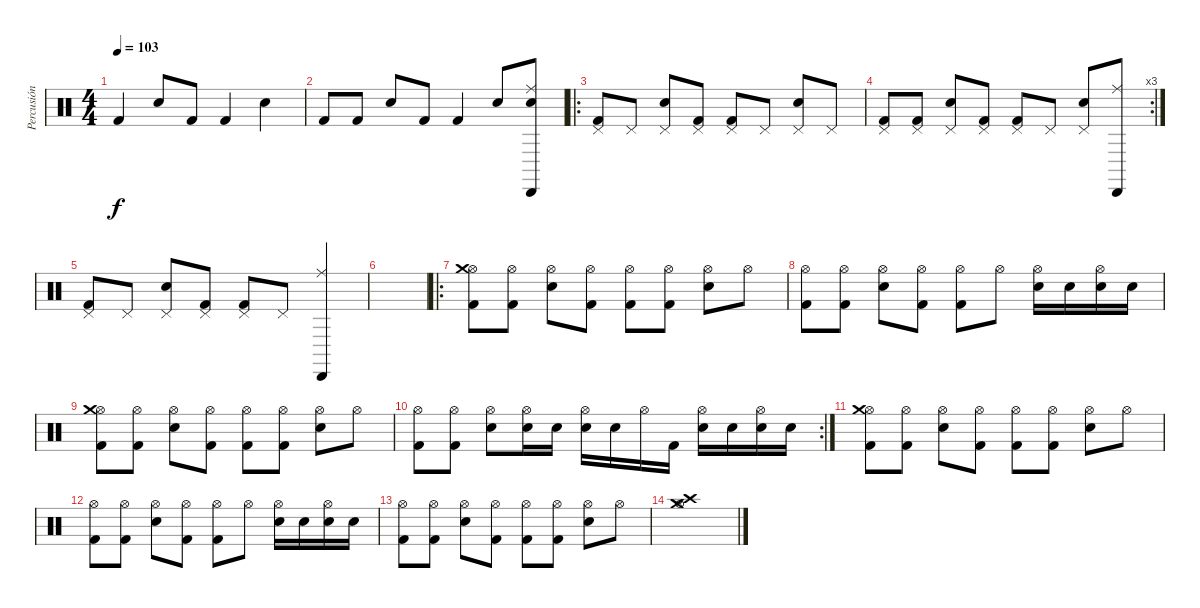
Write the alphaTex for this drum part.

\track ("Percusión" "Percusión") {instrument percussion}
\staff {score}
\articulation defaults
\ts (4 4)
\tempo 103
\clef neutral
\ks c "Kick (hit) 2".4{dy f} "Electric Snare (hit)".8 "Kick (hit) 2".8 "Kick (hit) 2".4 "Electric Snare (hit)".4
|
"Kick (hit) 2".8 "Kick (hit) 2".8 "Electric Snare (hit)".8 "Kick (hit) 2".8 "Kick (hit) 2".4 "Electric Snare (hit)".8 ("Cabasa (hit)" "Snare (hit)" "Ride (middle)").8 |
\ro
("Pedal Hi-Hat (hit)" "Kick (hit) 2").8 "Pedal Hi-Hat (hit)".8 ("Pedal Hi-Hat (hit)" "Electric Snare (hit)").8 ("Pedal Hi-Hat (hit)" "Kick (hit) 2").8 ("Pedal Hi-Hat (hit)" "Kick (hit) 2").8 "Pedal Hi-Hat (hit)".8 ("Pedal Hi-Hat (hit)" "Electric Snare (hit)").8 "Pedal Hi-Hat (hit)".8 |
\rc 3
("Pedal Hi-Hat (hit)" "Kick (hit) 2").8 ("Pedal Hi-Hat (hit)" "Kick (hit) 2").8 ("Pedal Hi-Hat (hit)" "Electric Snare (hit)").8 ("Pedal Hi-Hat (hit)" "Kick (hit) 2").8 ("Pedal Hi-Hat (hit)" "Kick (hit) 2").8 "Pedal Hi-Hat (hit)".8 ("Pedal Hi-Hat (hit)" "Electric Snare (hit)").8 ("Cabasa (hit)" "Ride (middle)").8 |
("Pedal Hi-Hat (hit)" "Kick (hit) 2").8 "Pedal Hi-Hat (hit)".8 ("Pedal Hi-Hat (hit)" "Electric Snare (hit)").8 ("Pedal Hi-Hat (hit)" "Kick (hit) 2").8 ("Pedal Hi-Hat (hit)" "Kick (hit) 2").8 "Pedal Hi-Hat (hit)".8 ("Cabasa (hit)" "Ride (middle)").4 |
|
\ro
("Hi-Hat (open)" "Kick (hit) 2" "Crash medium (hit)").8 ("Hi-Hat (open)" "Kick (hit) 2").8 ("Hi-Hat (open)" "Electric Snare (hit)").8 ("Hi-Hat (open)" "Kick (hit) 2").8 ("Hi-Hat (open)" "Kick (hit) 2").8 ("Hi-Hat (open)" "Kick (hit) 2").8 ("Hi-Hat (open)" "Electric Snare (hit)").8 "Hi-Hat (open)".8 |
("Hi-Hat (open)" "Kick (hit) 2").8 ("Hi-Hat (open)" "Kick (hit) 2").8 ("Hi-Hat (open)" "Electric Snare (hit)").8 ("Hi-Hat (open)" "Kick (hit) 2").8 ("Hi-Hat (open)" "Kick (hit) 2").8 "Hi-Hat (open)".8 ("Hi-Hat (open)" "Electric Snare (hit)").16 "Electric Snare (hit)".16 ("Hi-Hat (open)" "Electric Snare (hit)").16 "Electric Snare (hit)".16 |
("Hi-Hat (open)" "Kick (hit) 2" "Crash medium (hit)").8 ("Hi-Hat (open)" "Kick (hit) 2").8 ("Hi-Hat (open)" "Electric Snare (hit)").8 ("Hi-Hat (open)" "Kick (hit) 2").8 ("Hi-Hat (open)" "Kick (hit) 2").8 ("Hi-Hat (open)" "Kick (hit) 2").8 ("Hi-Hat (open)" "Electric Snare (hit)").8 "Hi-Hat (open)".8 |
\rc 2
("Hi-Hat (open)" "Kick (hit) 2").8 ("Hi-Hat (open)" "Kick (hit) 2").8 ("Hi-Hat (open)" "Electric Snare (hit)").8 ("Hi-Hat (open)" "Electric Snare (hit)").16 "Electric Snare (hit)".16 ("Hi-Hat (open)" "Electric Snare (hit)").16 "Electric Snare (hit)".16 "Hi-Hat (open)".16 "Kick (hit) 2".16 ("Hi-Hat (open)" "Electric Snare (hit)").16 "Electric Snare (hit)".16 ("Hi-Hat (open)" "Electric Snare (hit)").16 "Electric Snare (hit)".16 |
("Hi-Hat (open)" "Kick (hit) 2" "Crash medium (hit)").8 ("Hi-Hat (open)" "Kick (hit) 2").8 ("Hi-Hat (open)" "Electric Snare (hit)").8 ("Hi-Hat (open)" "Kick (hit) 2").8 ("Hi-Hat (open)" "Kick (hit) 2").8 ("Hi-Hat (open)" "Kick (hit) 2").8 ("Hi-Hat (open)" "Electric Snare (hit)").8 "Hi-Hat (open)".8 |
("Hi-Hat (open)" "Kick (hit) 2").8 ("Hi-Hat (open)" "Kick (hit) 2").8 ("Hi-Hat (open)" "Electric Snare (hit)").8 ("Hi-Hat (open)" "Kick (hit) 2").8 ("Hi-Hat (open)" "Kick (hit) 2").8 "Hi-Hat (open)".8 ("Hi-Hat (open)" "Electric Snare (hit)").16 "Electric Snare (hit)".16 ("Hi-Hat (open)" "Electric Snare (hit)").16 "Electric Snare (hit)".16 |
("Hi-Hat (open)" "Kick (hit) 2").8 ("Hi-Hat (open)" "Kick (hit) 2").8 ("Hi-Hat (open)" "Electric Snare (hit)").8 ("Hi-Hat (open)" "Kick (hit) 2").8 ("Hi-Hat (open)" "Kick (hit) 2").8 ("Hi-Hat (open)" "Kick (hit) 2").8 ("Hi-Hat (open)" "Electric Snare (hit)").8 "Hi-Hat (open)".8 |
("Crash high (hit)" "Hi-Hat (open)" "Crash medium (hit)").1
